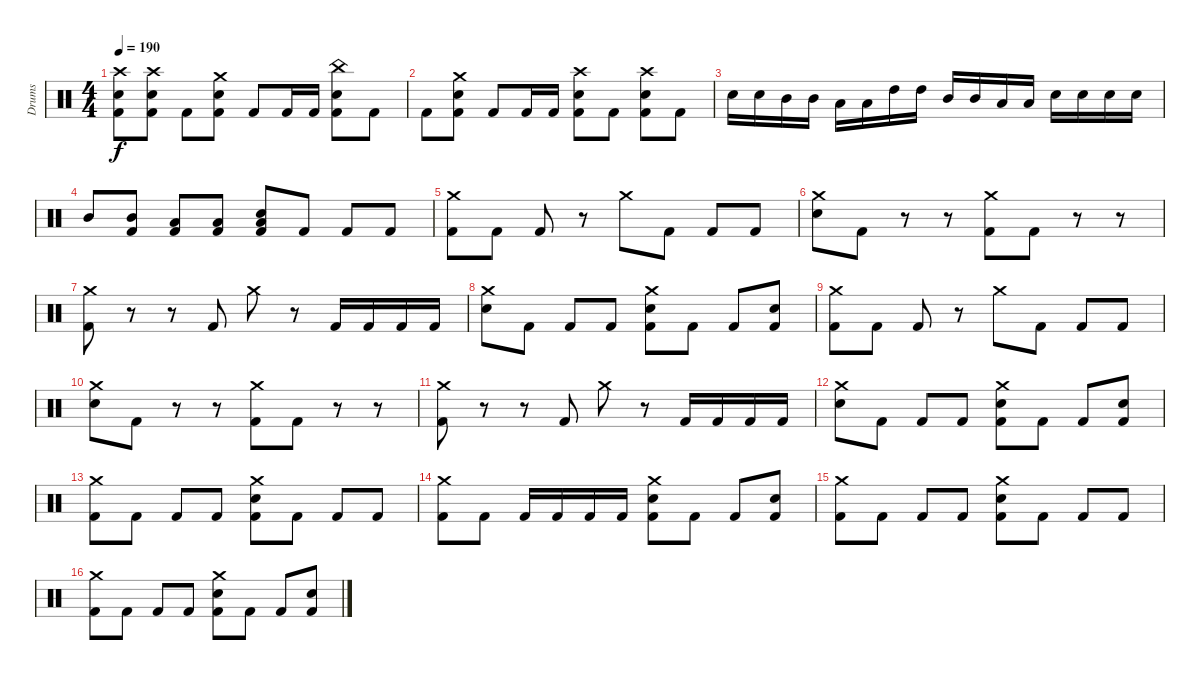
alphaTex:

\track ("Drums" "Drums") {instrument percussion}
\staff {score}
\articulation defaults
\ts (4 4)
\tempo 190
\clef neutral
\ks c
("Crash high (hit)" "Electric Snare (hit)" "Kick (hit) 2").8{dy f} ("Crash high (hit)" "Electric Snare (hit)" "Kick (hit) 2").8 "Kick (hit) 2".8 ("Crash medium (hit)" "Electric Snare (hit)" "Kick (hit) 2").8 "Kick (hit) 2".8 "Kick (hit) 2".16 "Kick (hit) 2".16 ("China (hit)" "Electric Snare (hit)" "Kick (hit) 2").8 "Kick (hit) 2".8 |
"Kick (hit) 2".8 ("Crash medium (hit)" "Electric Snare (hit)" "Kick (hit) 2").8 "Kick (hit) 2".8 "Kick (hit) 2".16 "Kick (hit) 2".16 ("Crash high (hit)" "Electric Snare (hit)" "Kick (hit) 2").8 "Kick (hit) 2".8 ("Crash high (hit)" "Electric Snare (hit)" "Kick (hit) 2").8 "Kick (hit) 2".8 |
"Electric Snare (hit)".16 "Electric Snare (hit)".16 "Mid Tom (hit)".16 "Mid Tom (hit)".16 "Low Tom (hit)".16 "Low Tom (hit)".16 "High Tom (hit)".16 "High Tom (hit)".16 "Mid Tom (hit)".16 "Mid Tom (hit)".16 "Low Tom (hit)".16 "Low Tom (hit)".16 "Electric Snare (hit)".16 "Electric Snare (hit)".16 "Electric Snare (hit)".16 "Electric Snare (hit)".16 |
"Mid Tom (hit)".8 ("Mid Tom (hit)" "Kick (hit) 2").8 ("Low Tom (hit)" "Kick (hit) 2").8 ("Low Tom (hit)" "Kick (hit) 2").8 ("Low Tom (hit)" "Electric Snare (hit)" "Kick (hit) 2").8 "Kick (hit) 2".8 "Kick (hit) 2".8 "Kick (hit) 2".8 |
("Crash medium (hit)" "Kick (hit) 2").8 "Kick (hit) 2".8 "Kick (hit) 2".8 r.8 "Crash medium (hit)".8 "Kick (hit) 2".8 "Kick (hit) 2".8 "Kick (hit) 2".8 |
("Crash medium (hit)" "Electric Snare (hit)").8 "Kick (hit) 2".8 r.8 r.8 ("Crash medium (hit)" "Kick (hit) 2").8 "Kick (hit) 2".8 r.8 r.8 |
("Crash medium (hit)" "Kick (hit) 2").8 r.8 r.8 "Kick (hit) 2".8 "Crash medium (hit)".8 r.8 "Kick (hit) 2".16 "Kick (hit) 2".16 "Kick (hit) 2".16 "Kick (hit) 2".16 |
("Crash medium (hit)" "Electric Snare (hit)").8 "Kick (hit) 2".8 "Kick (hit) 2".8 "Kick (hit) 2".8 ("Crash medium (hit)" "Electric Snare (hit)" "Kick (hit) 2").8 "Kick (hit) 2".8 "Kick (hit) 2".8 ("Electric Snare (hit)" "Kick (hit) 2").8 |
("Crash medium (hit)" "Kick (hit) 2").8 "Kick (hit) 2".8 "Kick (hit) 2".8 r.8 "Crash medium (hit)".8 "Kick (hit) 2".8 "Kick (hit) 2".8 "Kick (hit) 2".8 |
("Crash medium (hit)" "Electric Snare (hit)").8 "Kick (hit) 2".8 r.8 r.8 ("Crash medium (hit)" "Kick (hit) 2").8 "Kick (hit) 2".8 r.8 r.8 |
("Crash medium (hit)" "Kick (hit) 2").8 r.8 r.8 "Kick (hit) 2".8 "Crash medium (hit)".8 r.8 "Kick (hit) 2".16 "Kick (hit) 2".16 "Kick (hit) 2".16 "Kick (hit) 2".16 |
("Crash medium (hit)" "Electric Snare (hit)").8 "Kick (hit) 2".8 "Kick (hit) 2".8 "Kick (hit) 2".8 ("Crash medium (hit)" "Electric Snare (hit)" "Kick (hit) 2").8 "Kick (hit) 2".8 "Kick (hit) 2".8 ("Electric Snare (hit)" "Kick (hit) 2").8 |
("Crash medium (hit)" "Kick (hit) 2").8 "Kick (hit) 2".8 "Kick (hit) 2".8 "Kick (hit) 2".8 ("Crash medium (hit)" "Electric Snare (hit)" "Kick (hit) 2").8 "Kick (hit) 2".8 "Kick (hit) 2".8 "Kick (hit) 2".8 |
("Crash medium (hit)" "Kick (hit) 2").8 "Kick (hit) 2".8 "Kick (hit) 2".16 "Kick (hit) 2".16 "Kick (hit) 2".16 "Kick (hit) 2".16 ("Crash medium (hit)" "Electric Snare (hit)" "Kick (hit) 2").8 "Kick (hit) 2".8 "Kick (hit) 2".8 ("Electric Snare (hit)" "Kick (hit) 2").8 |
("Crash medium (hit)" "Kick (hit) 2").8 "Kick (hit) 2".8 "Kick (hit) 2".8 "Kick (hit) 2".8 ("Crash medium (hit)" "Electric Snare (hit)" "Kick (hit) 2").8 "Kick (hit) 2".8 "Kick (hit) 2".8 "Kick (hit) 2".8 |
("Crash medium (hit)" "Kick (hit) 2").8 "Kick (hit) 2".8 "Kick (hit) 2".8 "Kick (hit) 2".8 ("Crash medium (hit)" "Electric Snare (hit)" "Kick (hit) 2").8 "Kick (hit) 2".8 "Kick (hit) 2".8 ("Electric Snare (hit)" "Kick (hit) 2").8
